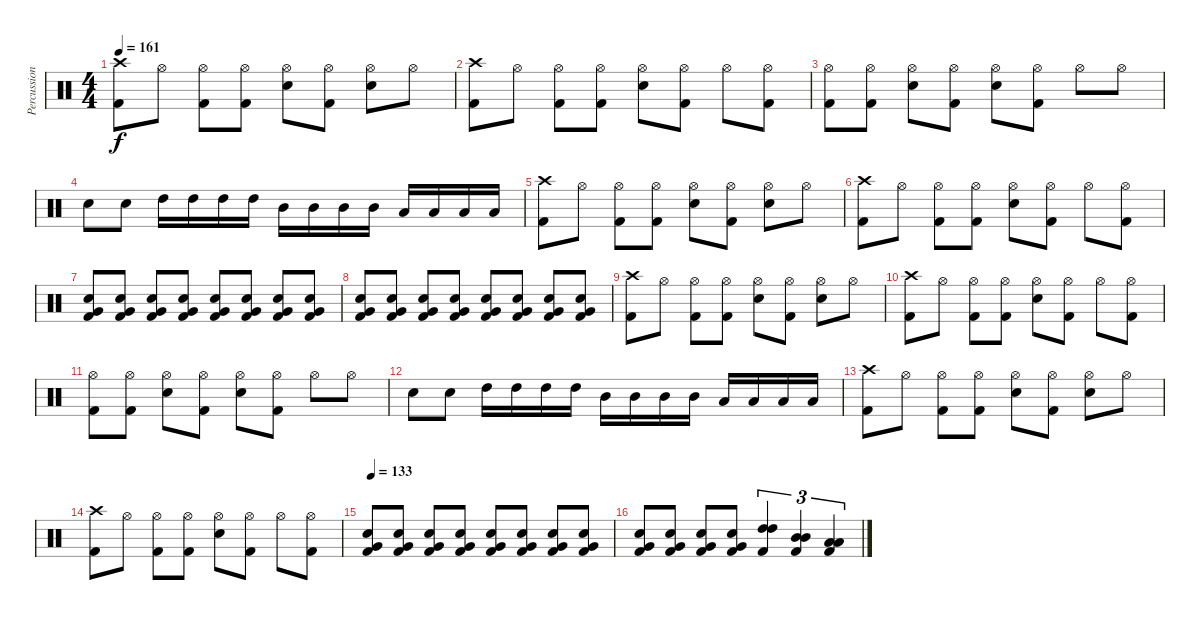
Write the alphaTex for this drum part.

\track ("Percussions" "Percussion") {instrument percussion}
\staff {score}
\articulation defaults
\ts (4 4)
\tempo 161
\clef neutral
\ks c
("Kick (hit) 2" "Crash high (hit)").8{dy f} "Hi-Hat (open)".8 ("Kick (hit) 2" "Hi-Hat (open)").8 ("Kick (hit) 2" "Hi-Hat (open)").8 ("Electric Snare (hit)" "Hi-Hat (open)").8 ("Kick (hit) 2" "Hi-Hat (open)").8 ("Electric Snare (hit)" "Hi-Hat (open)").8 "Hi-Hat (open)".8 |
("Kick (hit) 2" "Crash high (hit)").8 "Hi-Hat (open)".8 ("Kick (hit) 2" "Hi-Hat (open)").8 ("Kick (hit) 2" "Hi-Hat (open)").8 ("Electric Snare (hit)" "Hi-Hat (open)").8 ("Kick (hit) 2" "Hi-Hat (open)").8 "Hi-Hat (open)".8 ("Kick (hit) 2" "Hi-Hat (open)").8 |
("Kick (hit) 2" "Hi-Hat (open)").8 ("Kick (hit) 2" "Hi-Hat (open)").8 ("Electric Snare (hit)" "Hi-Hat (open)").8 ("Kick (hit) 2" "Hi-Hat (open)").8 ("Electric Snare (hit)" "Hi-Hat (open)").8 ("Kick (hit) 2" "Hi-Hat (open)").8 "Hi-Hat (open)".8 "Hi-Hat (open)".8 |
"Electric Snare (hit)".8 "Electric Snare (hit)".8 "High Tom (hit)".16 "High Tom (hit)".16 "High Tom (hit)".16 "High Tom (hit)".16 "Mid Tom (hit)".16 "Mid Tom (hit)".16 "Mid Tom (hit)".16 "Mid Tom (hit)".16 "Low Tom (hit)".16 "Low Tom (hit)".16 "Low Tom (hit)".16 "Low Tom (hit)".16 |
("Kick (hit) 2" "Crash high (hit)").8 "Hi-Hat (open)".8 ("Kick (hit) 2" "Hi-Hat (open)").8 ("Kick (hit) 2" "Hi-Hat (open)").8 ("Electric Snare (hit)" "Hi-Hat (open)").8 ("Kick (hit) 2" "Hi-Hat (open)").8 ("Electric Snare (hit)" "Hi-Hat (open)").8 "Hi-Hat (open)".8 |
("Kick (hit) 2" "Crash high (hit)").8 "Hi-Hat (open)".8 ("Kick (hit) 2" "Hi-Hat (open)").8 ("Kick (hit) 2" "Hi-Hat (open)").8 ("Electric Snare (hit)" "Hi-Hat (open)").8 ("Kick (hit) 2" "Hi-Hat (open)").8 "Hi-Hat (open)".8 ("Kick (hit) 2" "Hi-Hat (open)").8 |
("Kick (hit) 2" "Very Low Tom (hit)" "Electric Snare (hit)").8 ("Kick (hit) 2" "Very Low Tom (hit)" "Electric Snare (hit)").8 ("Kick (hit) 2" "Very Low Tom (hit)" "Electric Snare (hit)").8 ("Kick (hit) 2" "Very Low Tom (hit)" "Electric Snare (hit)").8 ("Kick (hit) 2" "Very Low Tom (hit)" "Electric Snare (hit)").8 ("Kick (hit) 2" "Very Low Tom (hit)" "Electric Snare (hit)").8 ("Kick (hit) 2" "Very Low Tom (hit)" "Electric Snare (hit)").8 ("Kick (hit) 2" "Very Low Tom (hit)" "Electric Snare (hit)").8 |
("Kick (hit) 2" "Very Low Tom (hit)" "Electric Snare (hit)").8 ("Kick (hit) 2" "Very Low Tom (hit)" "Electric Snare (hit)").8 ("Kick (hit) 2" "Very Low Tom (hit)" "Electric Snare (hit)").8 ("Kick (hit) 2" "Very Low Tom (hit)" "Electric Snare (hit)").8 ("Kick (hit) 2" "Very Low Tom (hit)" "Electric Snare (hit)").8 ("Kick (hit) 2" "Very Low Tom (hit)" "Electric Snare (hit)").8 ("Kick (hit) 2" "Very Low Tom (hit)" "Electric Snare (hit)").8 ("Kick (hit) 2" "Very Low Tom (hit)" "Electric Snare (hit)").8 |
("Kick (hit) 2" "Crash high (hit)").8 "Hi-Hat (open)".8 ("Kick (hit) 2" "Hi-Hat (open)").8 ("Kick (hit) 2" "Hi-Hat (open)").8 ("Electric Snare (hit)" "Hi-Hat (open)").8 ("Kick (hit) 2" "Hi-Hat (open)").8 ("Electric Snare (hit)" "Hi-Hat (open)").8 "Hi-Hat (open)".8 |
("Kick (hit) 2" "Crash high (hit)").8 "Hi-Hat (open)".8 ("Kick (hit) 2" "Hi-Hat (open)").8 ("Kick (hit) 2" "Hi-Hat (open)").8 ("Electric Snare (hit)" "Hi-Hat (open)").8 ("Kick (hit) 2" "Hi-Hat (open)").8 "Hi-Hat (open)".8 ("Kick (hit) 2" "Hi-Hat (open)").8 |
("Kick (hit) 2" "Hi-Hat (open)").8 ("Kick (hit) 2" "Hi-Hat (open)").8 ("Electric Snare (hit)" "Hi-Hat (open)").8 ("Kick (hit) 2" "Hi-Hat (open)").8 ("Electric Snare (hit)" "Hi-Hat (open)").8 ("Kick (hit) 2" "Hi-Hat (open)").8 "Hi-Hat (open)".8 "Hi-Hat (open)".8 |
"Electric Snare (hit)".8 "Electric Snare (hit)".8 "High Tom (hit)".16 "High Tom (hit)".16 "High Tom (hit)".16 "High Tom (hit)".16 "Mid Tom (hit)".16 "Mid Tom (hit)".16 "Mid Tom (hit)".16 "Mid Tom (hit)".16 "Low Tom (hit)".16 "Low Tom (hit)".16 "Low Tom (hit)".16 "Low Tom (hit)".16 |
("Kick (hit) 2" "Crash high (hit)").8 "Hi-Hat (open)".8 ("Kick (hit) 2" "Hi-Hat (open)").8 ("Kick (hit) 2" "Hi-Hat (open)").8 ("Electric Snare (hit)" "Hi-Hat (open)").8 ("Kick (hit) 2" "Hi-Hat (open)").8 ("Electric Snare (hit)" "Hi-Hat (open)").8 "Hi-Hat (open)".8 |
("Kick (hit) 2" "Crash high (hit)").8 "Hi-Hat (open)".8 ("Kick (hit) 2" "Hi-Hat (open)").8 ("Kick (hit) 2" "Hi-Hat (open)").8 ("Electric Snare (hit)" "Hi-Hat (open)").8 ("Kick (hit) 2" "Hi-Hat (open)").8 "Hi-Hat (open)".8 ("Kick (hit) 2" "Hi-Hat (open)").8 |
\tempo 133
("Kick (hit) 2" "Very Low Tom (hit)" "Electric Snare (hit)").8 ("Kick (hit) 2" "Very Low Tom (hit)" "Electric Snare (hit)").8 ("Kick (hit) 2" "Very Low Tom (hit)" "Electric Snare (hit)").8 ("Kick (hit) 2" "Very Low Tom (hit)" "Electric Snare (hit)").8 ("Kick (hit) 2" "Very Low Tom (hit)" "Electric Snare (hit)").8 ("Kick (hit) 2" "Very Low Tom (hit)" "Electric Snare (hit)").8 ("Kick (hit) 2" "Very Low Tom (hit)" "Electric Snare (hit)").8 ("Kick (hit) 2" "Very Low Tom (hit)" "Electric Snare (hit)").8 |
("Kick (hit) 2" "Very Low Tom (hit)" "Electric Snare (hit)").8 ("Kick (hit) 2" "Very Low Tom (hit)" "Electric Snare (hit)").8 ("Kick (hit) 2" "Very Low Tom (hit)" "Electric Snare (hit)").8 ("Kick (hit) 2" "Very Low Tom (hit)" "Electric Snare (hit)").8 ("Kick (hit) 2" "High Tom (hit)" "High Tom (hit)").4{tu (3 2)} ("Kick (hit) 2" "Mid Tom (hit)" "Mid Tom (hit)").4{tu (3 2)} ("Kick (hit) 2" "Low Tom (hit)" "Low Tom (hit)").4{tu (3 2)}
